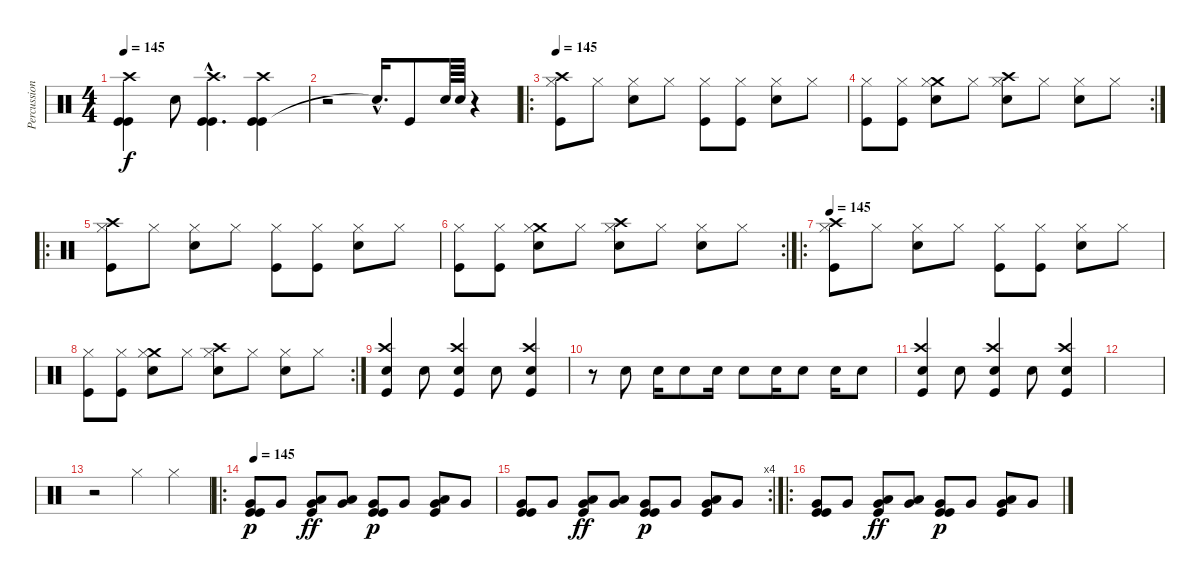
\track ("Percussions" "Percussion") {instrument percussion}
\staff {score}
\articulation defaults
\ts (4 4)
\tempo 145
\clef neutral
\ks c
("Kick (hit)" "Kick (hit)" "Crash high (hit)").4{dy f} "Snare (hit) 2".8 ("Kick (hit)"{hac} "Crash high (hit)"{hac} "Kick (hit)"{hac}).4{d} ("Kick (hit)" "Crash high (hit)" "Kick (hit)").4 |
r.2 "Snare (hit)"{hac t}.16{d} "Kick (hit)".8 "Snare (hit) 2".64 "Snare (hit) 2".64 r.4 |
\ro
\tempo 145
("Crash high (hit)" "Kick (hit)" "Hi-Hat (closed)").8 "Hi-Hat (closed)".8 ("Snare (hit) 2" "Hi-Hat (closed)").8 "Hi-Hat (closed)".8 ("Kick (hit)" "Hi-Hat (closed)").8 ("Kick (hit)" "Hi-Hat (closed)").8 ("Snare (hit) 2" "Hi-Hat (closed)").8 "Hi-Hat (closed)".8 |
\rc 2
("Kick (hit)" "Hi-Hat (closed)").8 ("Kick (hit)" "Hi-Hat (closed)").8 ("Crash medium (hit)" "Snare (hit) 2" "Hi-Hat (closed)").8 "Hi-Hat (closed)".8 ("Crash high (hit)" "Snare (hit) 2" "Hi-Hat (closed)").8 "Hi-Hat (closed)".8 ("Snare (hit) 2" "Hi-Hat (closed)").8 "Hi-Hat (closed)".8 |
\ro
("Crash high (hit)" "Kick (hit)" "Hi-Hat (closed)").8 "Hi-Hat (closed)".8 ("Snare (hit) 2" "Hi-Hat (closed)").8 "Hi-Hat (closed)".8 ("Kick (hit)" "Hi-Hat (closed)").8 ("Kick (hit)" "Hi-Hat (closed)").8 ("Snare (hit) 2" "Hi-Hat (closed)").8 "Hi-Hat (closed)".8 |
\rc 2
("Kick (hit)" "Hi-Hat (closed)").8 ("Kick (hit)" "Hi-Hat (closed)").8 ("Crash medium (hit)" "Snare (hit) 2" "Hi-Hat (closed)").8 "Hi-Hat (closed)".8 ("Crash high (hit)" "Snare (hit) 2" "Hi-Hat (closed)").8 "Hi-Hat (closed)".8 ("Snare (hit) 2" "Hi-Hat (closed)").8 "Hi-Hat (closed)".8 |
\ro
\tempo 145
("Crash high (hit)" "Kick (hit)" "Hi-Hat (closed)").8 "Hi-Hat (closed)".8 ("Snare (hit) 2" "Hi-Hat (closed)").8 "Hi-Hat (closed)".8 ("Kick (hit)" "Hi-Hat (closed)").8 ("Kick (hit)" "Hi-Hat (closed)").8 ("Snare (hit) 2" "Hi-Hat (closed)").8 "Hi-Hat (closed)".8 |
\rc 2
("Kick (hit)" "Hi-Hat (closed)").8 ("Kick (hit)" "Hi-Hat (closed)").8 ("Crash medium (hit)" "Snare (hit) 2" "Hi-Hat (closed)").8 "Hi-Hat (closed)".8 ("Crash high (hit)" "Snare (hit) 2" "Hi-Hat (closed)").8 "Hi-Hat (closed)".8 ("Snare (hit) 2" "Hi-Hat (closed)").8 "Hi-Hat (closed)".8 |
("Kick (hit)" "Snare (hit) 2" "Crash high (hit)").4 "Snare (hit) 2".8 ("Kick (hit)" "Snare (hit) 2" "Crash high (hit)").4 "Snare (hit) 2".8 ("Kick (hit)" "Snare (hit) 2" "Crash high (hit)").4 |
r.8 "Snare (hit) 2".8 "Snare (hit) 2".16 "Snare (hit) 2".8 "Snare (hit) 2".16 "Snare (hit) 2".8 "Snare (hit) 2".16 "Snare (hit) 2".8 "Snare (hit) 2".16 "Snare (hit) 2".8 |
("Kick (hit)" "Snare (hit) 2" "Crash high (hit)").4 "Snare (hit) 2".8 ("Kick (hit)" "Snare (hit) 2" "Crash high (hit)").4 "Snare (hit) 2".8 ("Kick (hit)" "Snare (hit) 2" "Crash high (hit)").4 |
|
r.2 "Hi-Hat (closed)".4 "Hi-Hat (closed)".4 |
\ro
\tempo 145
("Very Low Tom (hit)" "Kick (hit)" "Kick (hit)").8{dy p} "Very Low Tom (hit)".8 ("Very Low Tom (hit)" "Kick (hit)" "Low Tom (hit)").8{dy ff} ("Very Low Tom (hit)" "Low Tom (hit)").8 ("Very Low Tom (hit)" "Kick (hit)" "Kick (hit)").8{dy p} "Very Low Tom (hit)".8 ("Very Low Tom (hit)" "Kick (hit)" "Low Tom (hit)").8 "Very Low Tom (hit)".8 |
\rc 4
("Very Low Tom (hit)" "Kick (hit)" "Kick (hit)").8 "Very Low Tom (hit)".8 ("Very Low Tom (hit)" "Kick (hit)" "Low Tom (hit)").8{dy ff} ("Very Low Tom (hit)" "Low Tom (hit)").8 ("Very Low Tom (hit)" "Kick (hit)" "Kick (hit)").8{dy p} "Very Low Tom (hit)".8 ("Very Low Tom (hit)" "Kick (hit)" "Low Tom (hit)").8 "Very Low Tom (hit)".8 |
\ro
("Very Low Tom (hit)" "Kick (hit)" "Kick (hit)").8 "Very Low Tom (hit)".8 ("Very Low Tom (hit)" "Kick (hit)" "Low Tom (hit)").8{dy ff} ("Very Low Tom (hit)" "Low Tom (hit)").8 ("Very Low Tom (hit)" "Kick (hit)" "Kick (hit)").8{dy p} "Very Low Tom (hit)".8 ("Very Low Tom (hit)" "Kick (hit)" "Low Tom (hit)").8 "Very Low Tom (hit)".8
